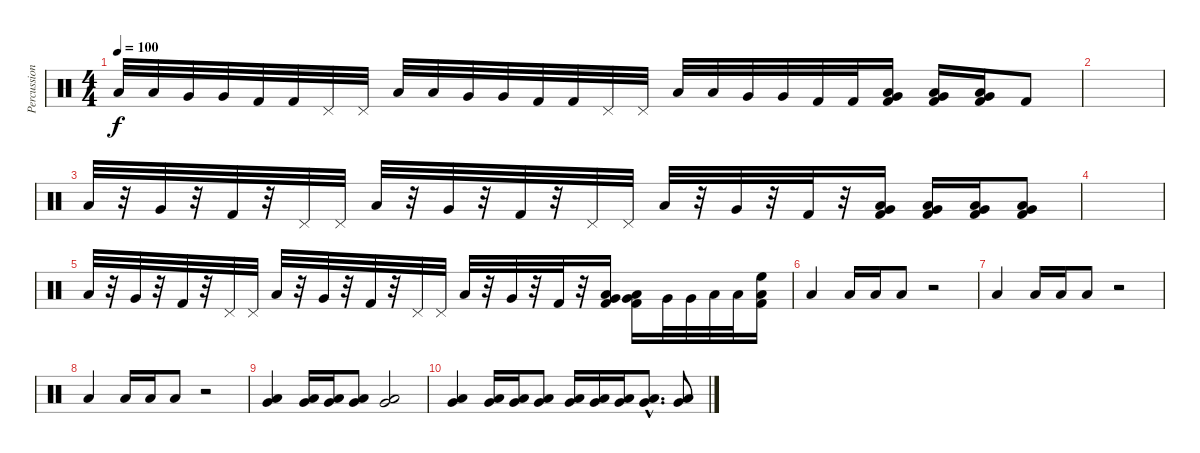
\track ("Percussions" "Percussion") {instrument percussion}
\staff {score}
\articulation defaults
\ts (4 4)
\tempo 100
\clef neutral
\ks c "Low Floor Tom (hit)".32{dy f} "Low Floor Tom (hit)".32 "Very Low Tom (hit)".32 "Very Low Tom (hit)".32 "Kick (hit) 2".32 "Kick (hit) 2".32 "Pedal Hi-Hat (hit)".32 "Pedal Hi-Hat (hit)".32 "Low Floor Tom (hit)".32 "Low Floor Tom (hit)".32 "Very Low Tom (hit)".32 "Very Low Tom (hit)".32 "Kick (hit) 2".32 "Kick (hit) 2".32 "Pedal Hi-Hat (hit)".32 "Pedal Hi-Hat (hit)".32 "Low Floor Tom (hit)".32 "Low Floor Tom (hit)".32 "Very Low Tom (hit)".32 "Very Low Tom (hit)".32 "Kick (hit) 2".32 "Kick (hit) 2".32
("Very Low Tom (hit)" "Kick (hit) 2" "Low Floor Tom (hit)").16 ("Very Low Tom (hit)" "Kick (hit) 2" "Low Floor Tom (hit)").16 ("Very Low Tom (hit)" "Kick (hit) 2" "Low Floor Tom (hit)").16 "Kick (hit) 2".8 |
|
"Low Floor Tom (hit)".32 r.32 "Very Low Tom (hit)".32 r.32 "Kick (hit) 2".32 r.32 "Pedal Hi-Hat (hit)".32 "Pedal Hi-Hat (hit)".32 "Low Floor Tom (hit)".32 r.32 "Very Low Tom (hit)".32 r.32 "Kick (hit) 2".32 r.32 "Pedal Hi-Hat (hit)".32 "Pedal Hi-Hat (hit)".32 "Low Floor Tom (hit)".32 r.32 "Very Low Tom (hit)".32 r.32 "Kick (hit) 2".32 r.32 ("Very Low Tom (hit)" "Kick (hit) 2" "Low Floor Tom (hit)").16 ("Very Low Tom (hit)" "Kick (hit) 2" "Low Floor Tom (hit)").16 ("Very Low Tom (hit)" "Kick (hit) 2" "Low Floor Tom (hit)").16 ("Low Floor Tom (hit)" "Kick (hit) 2" "Very Low Tom (hit)").8 |
|
"Low Floor Tom (hit)".32 r.32 "Very Low Tom (hit)".32 r.32 "Kick (hit) 2".32 r.32 "Pedal Hi-Hat (hit)".32 "Pedal Hi-Hat (hit)".32 "Low Floor Tom (hit)".32 r.32 "Very Low Tom (hit)".32 r.32 "Kick (hit) 2".32 r.32 "Pedal Hi-Hat (hit)".32 "Pedal Hi-Hat (hit)".32 "Low Floor Tom (hit)".32 r.32 "Very Low Tom (hit)".32 r.32 "Kick (hit) 2".32 r.32 ("Very Low Tom (hit)" "Kick (hit) 2" "Low Floor Tom (hit)").16 ("Very Low Tom (hit)" "Kick (hit) 2" "Low Floor Tom (hit)").16 "Very Low Tom (hit)".32 "Very Low Tom (hit)".32 "Low Floor Tom (hit)".32 "Low Floor Tom (hit)".32 ("High Floor Tom (hit)" "Low Floor Tom (hit)" "Kick (hit) 2").16 |
"Low Floor Tom (hit)".4 "Low Floor Tom (hit)".16 "Low Floor Tom (hit)".16 "Low Floor Tom (hit)".8 r.2 |
"Low Floor Tom (hit)".4 "Low Floor Tom (hit)".16 "Low Floor Tom (hit)".16 "Low Floor Tom (hit)".8 r.2 |
"Low Floor Tom (hit)".4 "Low Floor Tom (hit)".16 "Low Floor Tom (hit)".16 "Low Floor Tom (hit)".8 r.2 |
("Low Floor Tom (hit)" "Very Low Tom (hit)").4 ("Low Floor Tom (hit)" "Very Low Tom (hit)").16 ("Low Floor Tom (hit)" "Very Low Tom (hit)").16 ("Low Floor Tom (hit)" "Very Low Tom (hit)").8 ("Low Floor Tom (hit)" "Very Low Tom (hit)").2 |
("Low Floor Tom (hit)" "Very Low Tom (hit)").4 ("Low Floor Tom (hit)" "Very Low Tom (hit)").16 ("Low Floor Tom (hit)" "Very Low Tom (hit)").16 ("Low Floor Tom (hit)" "Very Low Tom (hit)").8 ("Low Floor Tom (hit)" "Very Low Tom (hit)").16 ("Low Floor Tom (hit)" "Very Low Tom (hit)").16 ("Low Floor Tom (hit)" "Very Low Tom (hit)").16 ("Low Floor Tom (hit)"{hac} "Very Low Tom (hit)"{hac}).8{d} ("Low Floor Tom (hit)" "Very Low Tom (hit)").8
